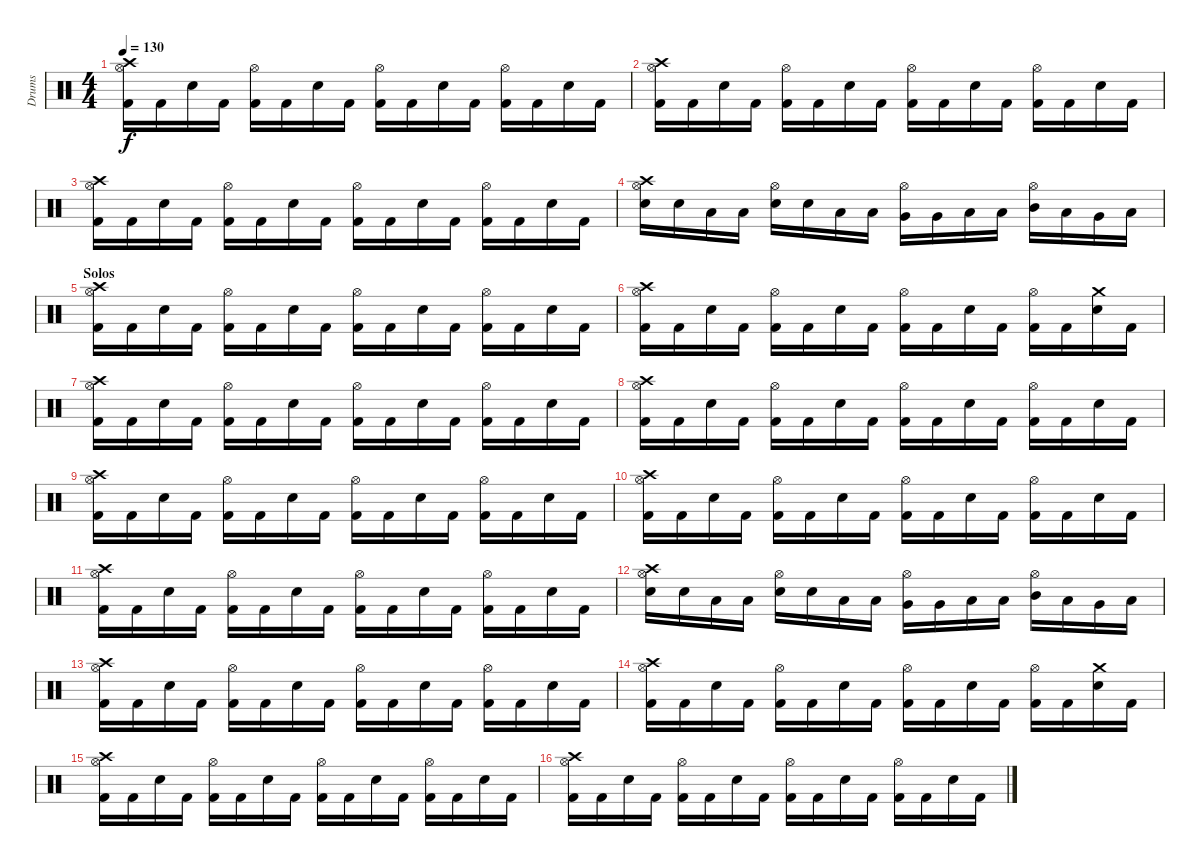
\track ("Drums" "Drums") {instrument percussion}
\staff {score}
\articulation defaults
\ts (4 4)
\tempo 130
\clef neutral
\ks c
("Crash high (hit)" "Hi-Hat (open)" "Kick (hit) 2").16{dy f} "Kick (hit) 2".16 "Electric Snare (hit)".16 "Kick (hit) 2".16 ("Hi-Hat (open)" "Kick (hit) 2").16 "Kick (hit) 2".16 "Electric Snare (hit)".16 "Kick (hit) 2".16 ("Hi-Hat (open)" "Kick (hit) 2").16 "Kick (hit) 2".16 "Electric Snare (hit)".16 "Kick (hit) 2".16 ("Hi-Hat (open)" "Kick (hit) 2").16 "Kick (hit) 2".16 "Electric Snare (hit)".16 "Kick (hit) 2".16 |
("Crash high (hit)" "Hi-Hat (open)" "Kick (hit) 2").16 "Kick (hit) 2".16 "Electric Snare (hit)".16 "Kick (hit) 2".16 ("Hi-Hat (open)" "Kick (hit) 2").16 "Kick (hit) 2".16 "Electric Snare (hit)".16 "Kick (hit) 2".16 ("Hi-Hat (open)" "Kick (hit) 2").16 "Kick (hit) 2".16 "Electric Snare (hit)".16 "Kick (hit) 2".16 ("Hi-Hat (open)" "Kick (hit) 2").16 "Kick (hit) 2".16 "Electric Snare (hit)".16 "Kick (hit) 2".16 |
("Crash high (hit)" "Hi-Hat (open)" "Kick (hit) 2").16 "Kick (hit) 2".16 "Electric Snare (hit)".16 "Kick (hit) 2".16 ("Hi-Hat (open)" "Kick (hit) 2").16 "Kick (hit) 2".16 "Electric Snare (hit)".16 "Kick (hit) 2".16 ("Hi-Hat (open)" "Kick (hit) 2").16 "Kick (hit) 2".16 "Electric Snare (hit)".16 "Kick (hit) 2".16 ("Hi-Hat (open)" "Kick (hit) 2").16 "Kick (hit) 2".16 "Electric Snare (hit)".16 "Kick (hit) 2".16 |
("Crash high (hit)" "Hi-Hat (open)" "Electric Snare (hit)").16 "Electric Snare (hit)".16 "Low Tom (hit)".16 "Low Tom (hit)".16 ("Hi-Hat (open)" "Electric Snare (hit)").16 "Electric Snare (hit)".16 "Low Tom (hit)".16 "Low Tom (hit)".16 ("Hi-Hat (open)" "Very Low Tom (hit)").16 "Very Low Tom (hit)".16 "Low Floor Tom (hit)".16 "Low Floor Tom (hit)".16 ("Hi-Hat (open)" "Mid Tom (hit)").16 "Low Tom (hit)".16 "Very Low Tom (hit)".16 "Low Floor Tom (hit)".16 |
\section ("" "Solos")
("Crash high (hit)" "Hi-Hat (open)" "Kick (hit) 2").16 "Kick (hit) 2".16 "Electric Snare (hit)".16 "Kick (hit) 2".16 ("Hi-Hat (open)" "Kick (hit) 2").16 "Kick (hit) 2".16 "Electric Snare (hit)".16 "Kick (hit) 2".16 ("Hi-Hat (open)" "Kick (hit) 2").16 "Kick (hit) 2".16 "Electric Snare (hit)".16 "Kick (hit) 2".16 ("Hi-Hat (open)" "Kick (hit) 2").16 "Kick (hit) 2".16 "Electric Snare (hit)".16 "Kick (hit) 2".16 |
("Crash high (hit)" "Hi-Hat (open)" "Kick (hit) 2").16 "Kick (hit) 2".16 "Electric Snare (hit)".16 "Kick (hit) 2".16 ("Hi-Hat (open)" "Kick (hit) 2").16 "Kick (hit) 2".16 "Electric Snare (hit)".16 "Kick (hit) 2".16 ("Hi-Hat (open)" "Kick (hit) 2").16 "Kick (hit) 2".16 "Electric Snare (hit)".16 "Kick (hit) 2".16 ("Hi-Hat (open)" "Kick (hit) 2").16 "Kick (hit) 2".16 ("Crash medium (hit)" "Electric Snare (hit)").16 "Kick (hit) 2".16 |
("Crash high (hit)" "Hi-Hat (open)" "Kick (hit) 2").16 "Kick (hit) 2".16 "Electric Snare (hit)".16 "Kick (hit) 2".16 ("Hi-Hat (open)" "Kick (hit) 2").16 "Kick (hit) 2".16 "Electric Snare (hit)".16 "Kick (hit) 2".16 ("Hi-Hat (open)" "Kick (hit) 2").16 "Kick (hit) 2".16 "Electric Snare (hit)".16 "Kick (hit) 2".16 ("Hi-Hat (open)" "Kick (hit) 2").16 "Kick (hit) 2".16 "Electric Snare (hit)".16 "Kick (hit) 2".16 |
("Crash high (hit)" "Hi-Hat (open)" "Kick (hit) 2").16 "Kick (hit) 2".16 "Electric Snare (hit)".16 "Kick (hit) 2".16 ("Hi-Hat (open)" "Kick (hit) 2").16 "Kick (hit) 2".16 "Electric Snare (hit)".16 "Kick (hit) 2".16 ("Hi-Hat (open)" "Kick (hit) 2").16 "Kick (hit) 2".16 "Electric Snare (hit)".16 "Kick (hit) 2".16 ("Hi-Hat (open)" "Kick (hit) 2").16 "Kick (hit) 2".16 "Electric Snare (hit)".16 "Kick (hit) 2".16 |
("Crash high (hit)" "Hi-Hat (open)" "Kick (hit) 2").16 "Kick (hit) 2".16 "Electric Snare (hit)".16 "Kick (hit) 2".16 ("Hi-Hat (open)" "Kick (hit) 2").16 "Kick (hit) 2".16 "Electric Snare (hit)".16 "Kick (hit) 2".16 ("Hi-Hat (open)" "Kick (hit) 2").16 "Kick (hit) 2".16 "Electric Snare (hit)".16 "Kick (hit) 2".16 ("Hi-Hat (open)" "Kick (hit) 2").16 "Kick (hit) 2".16 "Electric Snare (hit)".16 "Kick (hit) 2".16 |
("Crash high (hit)" "Hi-Hat (open)" "Kick (hit) 2").16 "Kick (hit) 2".16 "Electric Snare (hit)".16 "Kick (hit) 2".16 ("Hi-Hat (open)" "Kick (hit) 2").16 "Kick (hit) 2".16 "Electric Snare (hit)".16 "Kick (hit) 2".16 ("Hi-Hat (open)" "Kick (hit) 2").16 "Kick (hit) 2".16 "Electric Snare (hit)".16 "Kick (hit) 2".16 ("Hi-Hat (open)" "Kick (hit) 2").16 "Kick (hit) 2".16 "Electric Snare (hit)".16 "Kick (hit) 2".16 |
("Crash high (hit)" "Hi-Hat (open)" "Kick (hit) 2").16 "Kick (hit) 2".16 "Electric Snare (hit)".16 "Kick (hit) 2".16 ("Hi-Hat (open)" "Kick (hit) 2").16 "Kick (hit) 2".16 "Electric Snare (hit)".16 "Kick (hit) 2".16 ("Hi-Hat (open)" "Kick (hit) 2").16 "Kick (hit) 2".16 "Electric Snare (hit)".16 "Kick (hit) 2".16 ("Hi-Hat (open)" "Kick (hit) 2").16 "Kick (hit) 2".16 "Electric Snare (hit)".16 "Kick (hit) 2".16 |
("Crash high (hit)" "Hi-Hat (open)" "Electric Snare (hit)").16 "Electric Snare (hit)".16 "Low Tom (hit)".16 "Low Tom (hit)".16 ("Hi-Hat (open)" "Electric Snare (hit)").16 "Electric Snare (hit)".16 "Low Tom (hit)".16 "Low Tom (hit)".16 ("Hi-Hat (open)" "Very Low Tom (hit)").16 "Very Low Tom (hit)".16 "Low Floor Tom (hit)".16 "Low Floor Tom (hit)".16 ("Hi-Hat (open)" "Mid Tom (hit)").16 "Low Tom (hit)".16 "Very Low Tom (hit)".16 "Low Floor Tom (hit)".16 |
("Crash high (hit)" "Hi-Hat (open)" "Kick (hit) 2").16 "Kick (hit) 2".16 "Electric Snare (hit)".16 "Kick (hit) 2".16 ("Hi-Hat (open)" "Kick (hit) 2").16 "Kick (hit) 2".16 "Electric Snare (hit)".16 "Kick (hit) 2".16 ("Hi-Hat (open)" "Kick (hit) 2").16 "Kick (hit) 2".16 "Electric Snare (hit)".16 "Kick (hit) 2".16 ("Hi-Hat (open)" "Kick (hit) 2").16 "Kick (hit) 2".16 "Electric Snare (hit)".16 "Kick (hit) 2".16 |
("Crash high (hit)" "Hi-Hat (open)" "Kick (hit) 2").16 "Kick (hit) 2".16 "Electric Snare (hit)".16 "Kick (hit) 2".16 ("Hi-Hat (open)" "Kick (hit) 2").16 "Kick (hit) 2".16 "Electric Snare (hit)".16 "Kick (hit) 2".16 ("Hi-Hat (open)" "Kick (hit) 2").16 "Kick (hit) 2".16 "Electric Snare (hit)".16 "Kick (hit) 2".16 ("Hi-Hat (open)" "Kick (hit) 2").16 "Kick (hit) 2".16 ("Crash medium (hit)" "Electric Snare (hit)").16 "Kick (hit) 2".16 |
("Crash high (hit)" "Hi-Hat (open)" "Kick (hit) 2").16 "Kick (hit) 2".16 "Electric Snare (hit)".16 "Kick (hit) 2".16 ("Hi-Hat (open)" "Kick (hit) 2").16 "Kick (hit) 2".16 "Electric Snare (hit)".16 "Kick (hit) 2".16 ("Hi-Hat (open)" "Kick (hit) 2").16 "Kick (hit) 2".16 "Electric Snare (hit)".16 "Kick (hit) 2".16 ("Hi-Hat (open)" "Kick (hit) 2").16 "Kick (hit) 2".16 "Electric Snare (hit)".16 "Kick (hit) 2".16 |
("Crash high (hit)" "Hi-Hat (open)" "Kick (hit) 2").16 "Kick (hit) 2".16 "Electric Snare (hit)".16 "Kick (hit) 2".16 ("Hi-Hat (open)" "Kick (hit) 2").16 "Kick (hit) 2".16 "Electric Snare (hit)".16 "Kick (hit) 2".16 ("Hi-Hat (open)" "Kick (hit) 2").16 "Kick (hit) 2".16 "Electric Snare (hit)".16 "Kick (hit) 2".16 ("Hi-Hat (open)" "Kick (hit) 2").16 "Kick (hit) 2".16 "Electric Snare (hit)".16 "Kick (hit) 2".16
